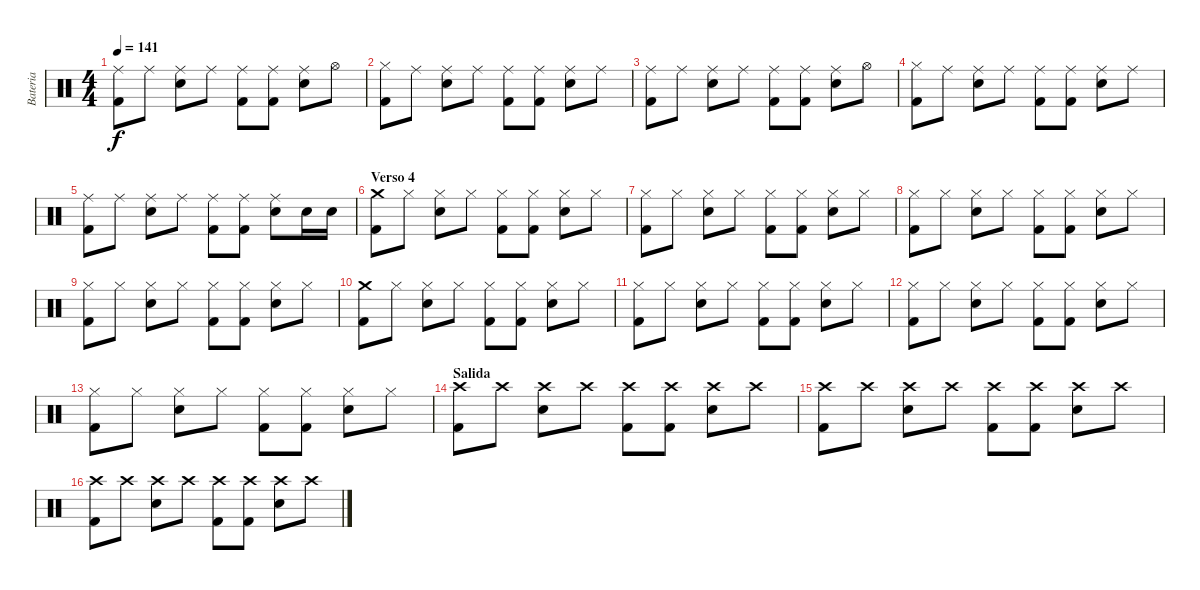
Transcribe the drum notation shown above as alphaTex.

\track ("Bateria" "Bateria") {instrument percussion}
\staff {score}
\articulation defaults
\ts (4 4)
\tempo 141
\clef neutral
\ks c
("Ride (middle)" "Kick (hit) 2").8{dy f} "Ride (middle)".8 ("Ride (middle)" "Electric Snare (hit)").8 "Ride (middle)".8 ("Ride (middle)" "Kick (hit) 2").8 ("Ride (middle)" "Kick (hit) 2").8 ("Ride (middle)" "Electric Snare (hit)").8 "Hi-Hat (open)".8 |
("Hi-Hat (closed)" "Kick (hit) 2").8 "Ride (middle)".8 ("Ride (middle)" "Electric Snare (hit)").8 "Ride (middle)".8 ("Ride (middle)" "Kick (hit) 2").8 ("Ride (middle)" "Kick (hit) 2").8 ("Ride (middle)" "Electric Snare (hit)").8 "Ride (middle)".8 |
("Ride (middle)" "Kick (hit) 2").8 "Ride (middle)".8 ("Ride (middle)" "Electric Snare (hit)").8 "Ride (middle)".8 ("Ride (middle)" "Kick (hit) 2").8 ("Ride (middle)" "Kick (hit) 2").8 ("Ride (middle)" "Electric Snare (hit)").8 "Hi-Hat (open)".8 |
("Hi-Hat (closed)" "Kick (hit) 2").8 "Ride (middle)".8 ("Ride (middle)" "Electric Snare (hit)").8 "Ride (middle)".8 ("Ride (middle)" "Kick (hit) 2").8 ("Ride (middle)" "Kick (hit) 2").8 ("Ride (middle)" "Electric Snare (hit)").8 "Ride (middle)".8 |
("Ride (middle)" "Kick (hit) 2").8 "Ride (middle)".8 ("Ride (middle)" "Electric Snare (hit)").8 "Ride (middle)".8 ("Ride (middle)" "Kick (hit) 2").8 ("Ride (middle)" "Kick (hit) 2").8 ("Ride (middle)" "Electric Snare (hit)").8 "Electric Snare (hit)".16 "Electric Snare (hit)".16 |
\section ("" "Verso 4")
("Crash medium (hit)" "Kick (hit) 2").8 "Hi-Hat (closed)".8 ("Hi-Hat (closed)" "Electric Snare (hit)").8 "Hi-Hat (closed)".8 ("Hi-Hat (closed)" "Kick (hit) 2").8 ("Hi-Hat (closed)" "Kick (hit) 2").8 ("Hi-Hat (closed)" "Electric Snare (hit)").8 "Hi-Hat (closed)".8 |
("Hi-Hat (closed)" "Kick (hit) 2").8 "Hi-Hat (closed)".8 ("Hi-Hat (closed)" "Electric Snare (hit)").8 "Hi-Hat (closed)".8 ("Hi-Hat (closed)" "Kick (hit) 2").8 ("Hi-Hat (closed)" "Kick (hit) 2").8 ("Hi-Hat (closed)" "Electric Snare (hit)").8 "Hi-Hat (closed)".8 |
("Hi-Hat (closed)" "Kick (hit) 2").8 "Hi-Hat (closed)".8 ("Hi-Hat (closed)" "Electric Snare (hit)").8 "Hi-Hat (closed)".8 ("Hi-Hat (closed)" "Kick (hit) 2").8 ("Hi-Hat (closed)" "Kick (hit) 2").8 ("Hi-Hat (closed)" "Electric Snare (hit)").8 "Hi-Hat (closed)".8 |
("Hi-Hat (closed)" "Kick (hit) 2").8 "Hi-Hat (closed)".8 ("Hi-Hat (closed)" "Electric Snare (hit)").8 "Hi-Hat (closed)".8 ("Hi-Hat (closed)" "Kick (hit) 2").8 ("Hi-Hat (closed)" "Kick (hit) 2").8 ("Hi-Hat (closed)" "Electric Snare (hit)").8 "Hi-Hat (closed)".8 |
("Crash medium (hit)" "Kick (hit) 2").8 "Hi-Hat (closed)".8 ("Hi-Hat (closed)" "Electric Snare (hit)").8 "Hi-Hat (closed)".8 ("Hi-Hat (closed)" "Kick (hit) 2").8 ("Hi-Hat (closed)" "Kick (hit) 2").8 ("Hi-Hat (closed)" "Electric Snare (hit)").8 "Hi-Hat (closed)".8 |
("Hi-Hat (closed)" "Kick (hit) 2").8 "Hi-Hat (closed)".8 ("Hi-Hat (closed)" "Electric Snare (hit)").8 "Hi-Hat (closed)".8 ("Hi-Hat (closed)" "Kick (hit) 2").8 ("Hi-Hat (closed)" "Kick (hit) 2").8 ("Hi-Hat (closed)" "Electric Snare (hit)").8 "Hi-Hat (closed)".8 |
("Hi-Hat (closed)" "Kick (hit) 2").8 "Hi-Hat (closed)".8 ("Hi-Hat (closed)" "Electric Snare (hit)").8 "Hi-Hat (closed)".8 ("Hi-Hat (closed)" "Kick (hit) 2").8 ("Hi-Hat (closed)" "Kick (hit) 2").8 ("Hi-Hat (closed)" "Electric Snare (hit)").8 "Hi-Hat (closed)".8 |
("Hi-Hat (closed)" "Kick (hit) 2").8 "Hi-Hat (closed)".8 ("Hi-Hat (closed)" "Electric Snare (hit)").8 "Hi-Hat (closed)".8 ("Hi-Hat (closed)" "Kick (hit) 2").8 ("Hi-Hat (closed)" "Kick (hit) 2").8 ("Hi-Hat (closed)" "Electric Snare (hit)").8 "Hi-Hat (closed)".8 |
\section ("" "Salida")
("Crash high (hit)" "Kick (hit) 2").8 "Crash high (hit)".8 ("Crash high (hit)" "Electric Snare (hit)").8 "Crash high (hit)".8 ("Crash high (hit)" "Kick (hit) 2").8 ("Crash high (hit)" "Kick (hit) 2").8 ("Crash high (hit)" "Electric Snare (hit)").8 "Crash high (hit)".8 |
("Crash high (hit)" "Kick (hit) 2").8 "Crash high (hit)".8 ("Crash high (hit)" "Electric Snare (hit)").8 "Crash high (hit)".8 ("Crash high (hit)" "Kick (hit) 2").8 ("Crash high (hit)" "Kick (hit) 2").8 ("Crash high (hit)" "Electric Snare (hit)").8 "Crash high (hit)".8 |
("Crash high (hit)" "Kick (hit) 2").8 "Crash high (hit)".8 ("Crash high (hit)" "Electric Snare (hit)").8 "Crash high (hit)".8 ("Crash high (hit)" "Kick (hit) 2").8 ("Crash high (hit)" "Kick (hit) 2").8 ("Crash high (hit)" "Electric Snare (hit)").8 "Crash high (hit)".8
